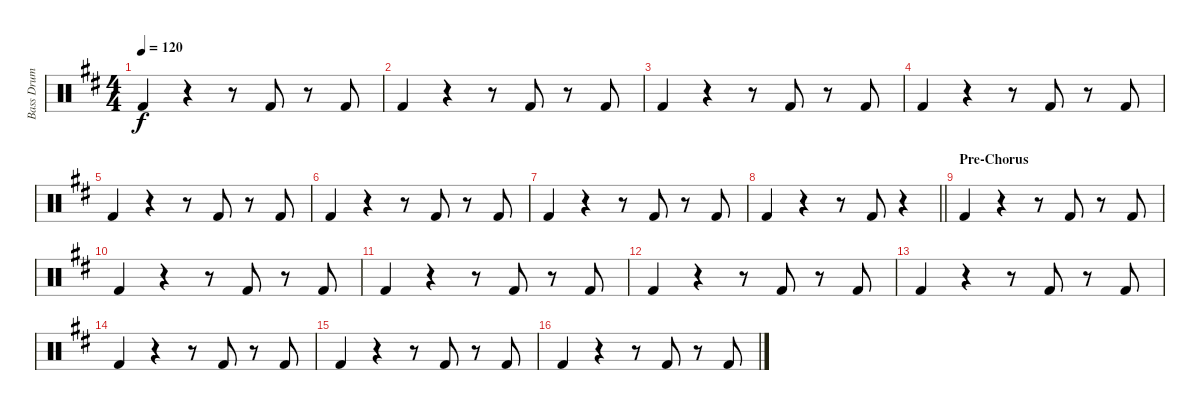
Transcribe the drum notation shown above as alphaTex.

\track ("Bass Drum" "Bass Drum") {instrument percussion}
\staff {score}
\articulation defaults
\ts (4 4)
\tempo 120
\clef neutral
\ks d "Kick (hit) 2".4{dy f}
r.4 r.8 "Kick (hit) 2".8 r.8 "Kick (hit) 2".8 |
"Kick (hit) 2".4 r.4 r.8 "Kick (hit) 2".8 r.8 "Kick (hit) 2".8 |
"Kick (hit) 2".4 r.4 r.8 "Kick (hit) 2".8 r.8 "Kick (hit) 2".8 |
"Kick (hit) 2".4 r.4 r.8 "Kick (hit) 2".8 r.8 "Kick (hit) 2".8 |
"Kick (hit) 2".4 r.4 r.8 "Kick (hit) 2".8 r.8 "Kick (hit) 2".8 |
"Kick (hit) 2".4 r.4 r.8 "Kick (hit) 2".8 r.8 "Kick (hit) 2".8 |
"Kick (hit) 2".4 r.4 r.8 "Kick (hit) 2".8 r.8 "Kick (hit) 2".8 |
\barLineRight lightlight "Kick (hit) 2".4
r.4 r.8 "Kick (hit) 2".8 r.4 |
\section ("" "Pre-Chorus")
"Kick (hit) 2".4 r.4 r.8 "Kick (hit) 2".8 r.8 "Kick (hit) 2".8 |
"Kick (hit) 2".4 r.4 r.8 "Kick (hit) 2".8 r.8 "Kick (hit) 2".8 |
"Kick (hit) 2".4 r.4 r.8 "Kick (hit) 2".8 r.8 "Kick (hit) 2".8 |
"Kick (hit) 2".4 r.4 r.8 "Kick (hit) 2".8 r.8 "Kick (hit) 2".8 |
"Kick (hit) 2".4 r.4 r.8 "Kick (hit) 2".8 r.8 "Kick (hit) 2".8 |
"Kick (hit) 2".4 r.4 r.8 "Kick (hit) 2".8 r.8 "Kick (hit) 2".8 |
"Kick (hit) 2".4 r.4 r.8 "Kick (hit) 2".8 r.8 "Kick (hit) 2".8 |
"Kick (hit) 2".4 r.4 r.8 "Kick (hit) 2".8 r.8 "Kick (hit) 2".8
